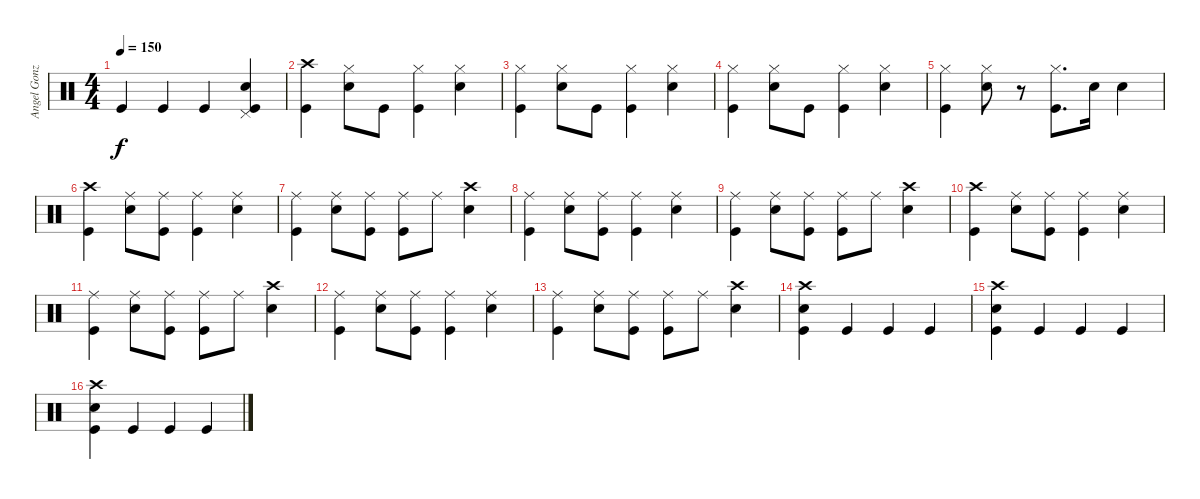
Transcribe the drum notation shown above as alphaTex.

\track ("Angel González - Batería" "Angel Gonz") {instrument percussion}
\staff {score}
\articulation defaults
\ts (4 4)
\tempo 150
\clef neutral
\ks c "Kick (hit)".4{dy f} "Kick (hit)".4 "Kick (hit)".4
("Electric Snare (hit)" "Pedal Hi-Hat (hit)" "Kick (hit)").4 |
("Crash high (hit)" "Kick (hit)").4 ("Hi-Hat (closed)" "Electric Snare (hit)").8 "Kick (hit)".8 ("Hi-Hat (closed)" "Kick (hit)").4 ("Hi-Hat (closed)" "Electric Snare (hit)").4 |
("Hi-Hat (closed)" "Kick (hit)").4 ("Hi-Hat (closed)" "Electric Snare (hit)").8 "Kick (hit)".8 ("Hi-Hat (closed)" "Kick (hit)").4 ("Hi-Hat (closed)" "Electric Snare (hit)").4 |
("Hi-Hat (closed)" "Kick (hit)").4 ("Hi-Hat (closed)" "Electric Snare (hit)").8 "Kick (hit)".8 ("Hi-Hat (closed)" "Kick (hit)").4 ("Hi-Hat (closed)" "Electric Snare (hit)").4 |
("Hi-Hat (closed)" "Kick (hit)").4 ("Hi-Hat (closed)" "Electric Snare (hit)").8 r.8 ("Hi-Hat (closed)" "Kick (hit)").8{d} "Electric Snare (hit)".16 "Electric Snare (hit)".4 |
("Crash high (hit)" "Kick (hit)").4 ("Ride (middle)" "Electric Snare (hit)").8 ("Ride (middle)" "Kick (hit)").8 ("Ride (middle)" "Kick (hit)").4 ("Ride (middle)" "Electric Snare (hit)").4 |
("Ride (middle)" "Kick (hit)").4 ("Ride (middle)" "Electric Snare (hit)").8 ("Ride (middle)" "Kick (hit)").8 ("Ride (middle)" "Kick (hit)").8 "Ride (middle)".8 ("Crash high (hit)" "Electric Snare (hit)").4 |
("Ride (middle)" "Kick (hit)").4 ("Ride (middle)" "Electric Snare (hit)").8 ("Ride (middle)" "Kick (hit)").8 ("Ride (middle)" "Kick (hit)").4 ("Ride (middle)" "Electric Snare (hit)").4 |
("Ride (middle)" "Kick (hit)").4 ("Ride (middle)" "Electric Snare (hit)").8 ("Ride (middle)" "Kick (hit)").8 ("Ride (middle)" "Kick (hit)").8 "Ride (middle)".8 ("Crash high (hit)" "Electric Snare (hit)").4 |
("Crash high (hit)" "Kick (hit)").4 ("Ride (middle)" "Electric Snare (hit)").8 ("Ride (middle)" "Kick (hit)").8 ("Ride (middle)" "Kick (hit)").4 ("Ride (middle)" "Electric Snare (hit)").4 |
("Ride (middle)" "Kick (hit)").4 ("Ride (middle)" "Electric Snare (hit)").8 ("Ride (middle)" "Kick (hit)").8 ("Ride (middle)" "Kick (hit)").8 "Ride (middle)".8 ("Crash high (hit)" "Electric Snare (hit)").4 |
("Ride (middle)" "Kick (hit)").4 ("Ride (middle)" "Electric Snare (hit)").8 ("Ride (middle)" "Kick (hit)").8 ("Ride (middle)" "Kick (hit)").4 ("Ride (middle)" "Electric Snare (hit)").4 |
("Ride (middle)" "Kick (hit)").4 ("Ride (middle)" "Electric Snare (hit)").8 ("Ride (middle)" "Kick (hit)").8 ("Ride (middle)" "Kick (hit)").8 "Ride (middle)".8 ("Crash high (hit)" "Electric Snare (hit)").4 |
("Crash high (hit)" "Electric Snare (hit)" "Kick (hit)").4 "Kick (hit)".4 "Kick (hit)".4 "Kick (hit)".4 |
("Crash high (hit)" "Electric Snare (hit)" "Kick (hit)").4 "Kick (hit)".4 "Kick (hit)".4 "Kick (hit)".4 |
("Crash high (hit)" "Electric Snare (hit)" "Kick (hit)").4 "Kick (hit)".4 "Kick (hit)".4 "Kick (hit)".4
